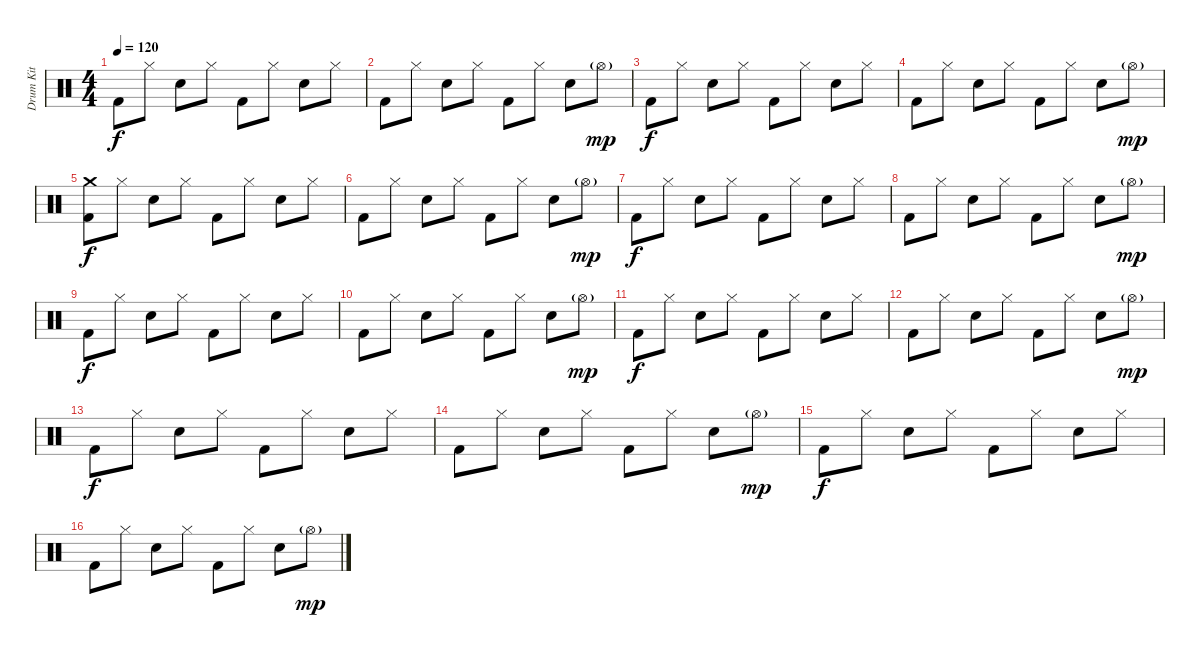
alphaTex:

\track ("Drum Kit" "Drum Kit") {instrument percussion}
\staff {score}
\articulation defaults
\ts (4 4)
\tempo 120
\clef neutral
\ks c "Kick (hit) 2".8{dy f} "Hi-Hat (closed)".8 "Electric Snare (hit)".8 "Hi-Hat (closed)".8 "Kick (hit) 2".8 "Hi-Hat (closed)".8 "Electric Snare (hit)".8 "Hi-Hat (closed)".8
|
"Kick (hit) 2".8 "Hi-Hat (closed)".8 "Electric Snare (hit)".8 "Hi-Hat (closed)".8 "Kick (hit) 2".8 "Hi-Hat (closed)".8 "Electric Snare (hit)".8 "Hi-Hat (open)"{g}.8{dy mp} |
"Kick (hit) 2".8{dy f} "Hi-Hat (closed)".8 "Electric Snare (hit)".8 "Hi-Hat (closed)".8 "Kick (hit) 2".8 "Hi-Hat (closed)".8 "Electric Snare (hit)".8 "Hi-Hat (closed)".8 |
"Kick (hit) 2".8 "Hi-Hat (closed)".8 "Electric Snare (hit)".8 "Hi-Hat (closed)".8 "Kick (hit) 2".8 "Hi-Hat (closed)".8 "Electric Snare (hit)".8 "Hi-Hat (open)"{g}.8{dy mp} |
("Crash medium (hit)" "Kick (hit) 2").8{dy f} "Hi-Hat (closed)".8 "Electric Snare (hit)".8 "Hi-Hat (closed)".8 "Kick (hit) 2".8 "Hi-Hat (closed)".8 "Electric Snare (hit)".8 "Hi-Hat (closed)".8 |
"Kick (hit) 2".8 "Hi-Hat (closed)".8 "Electric Snare (hit)".8 "Hi-Hat (closed)".8 "Kick (hit) 2".8 "Hi-Hat (closed)".8 "Electric Snare (hit)".8 "Hi-Hat (open)"{g}.8{dy mp} |
"Kick (hit) 2".8{dy f} "Hi-Hat (closed)".8 "Electric Snare (hit)".8 "Hi-Hat (closed)".8 "Kick (hit) 2".8 "Hi-Hat (closed)".8 "Electric Snare (hit)".8 "Hi-Hat (closed)".8 |
"Kick (hit) 2".8 "Hi-Hat (closed)".8 "Electric Snare (hit)".8 "Hi-Hat (closed)".8 "Kick (hit) 2".8 "Hi-Hat (closed)".8 "Electric Snare (hit)".8 "Hi-Hat (open)"{g}.8{dy mp} |
"Kick (hit) 2".8{dy f} "Hi-Hat (closed)".8 "Electric Snare (hit)".8 "Hi-Hat (closed)".8 "Kick (hit) 2".8 "Hi-Hat (closed)".8 "Electric Snare (hit)".8 "Hi-Hat (closed)".8 |
"Kick (hit) 2".8 "Hi-Hat (closed)".8 "Electric Snare (hit)".8 "Hi-Hat (closed)".8 "Kick (hit) 2".8 "Hi-Hat (closed)".8 "Electric Snare (hit)".8 "Hi-Hat (open)"{g}.8{dy mp} |
"Kick (hit) 2".8{dy f} "Hi-Hat (closed)".8 "Electric Snare (hit)".8 "Hi-Hat (closed)".8 "Kick (hit) 2".8 "Hi-Hat (closed)".8 "Electric Snare (hit)".8 "Hi-Hat (closed)".8 |
"Kick (hit) 2".8 "Hi-Hat (closed)".8 "Electric Snare (hit)".8 "Hi-Hat (closed)".8 "Kick (hit) 2".8 "Hi-Hat (closed)".8 "Electric Snare (hit)".8 "Hi-Hat (open)"{g}.8{dy mp} |
"Kick (hit) 2".8{dy f} "Hi-Hat (closed)".8 "Electric Snare (hit)".8 "Hi-Hat (closed)".8 "Kick (hit) 2".8 "Hi-Hat (closed)".8 "Electric Snare (hit)".8 "Hi-Hat (closed)".8 |
"Kick (hit) 2".8 "Hi-Hat (closed)".8 "Electric Snare (hit)".8 "Hi-Hat (closed)".8 "Kick (hit) 2".8 "Hi-Hat (closed)".8 "Electric Snare (hit)".8 "Hi-Hat (open)"{g}.8{dy mp} |
"Kick (hit) 2".8{dy f} "Hi-Hat (closed)".8 "Electric Snare (hit)".8 "Hi-Hat (closed)".8 "Kick (hit) 2".8 "Hi-Hat (closed)".8 "Electric Snare (hit)".8 "Hi-Hat (closed)".8 |
"Kick (hit) 2".8 "Hi-Hat (closed)".8 "Electric Snare (hit)".8 "Hi-Hat (closed)".8 "Kick (hit) 2".8 "Hi-Hat (closed)".8 "Electric Snare (hit)".8 "Hi-Hat (open)"{g}.8{dy mp}
